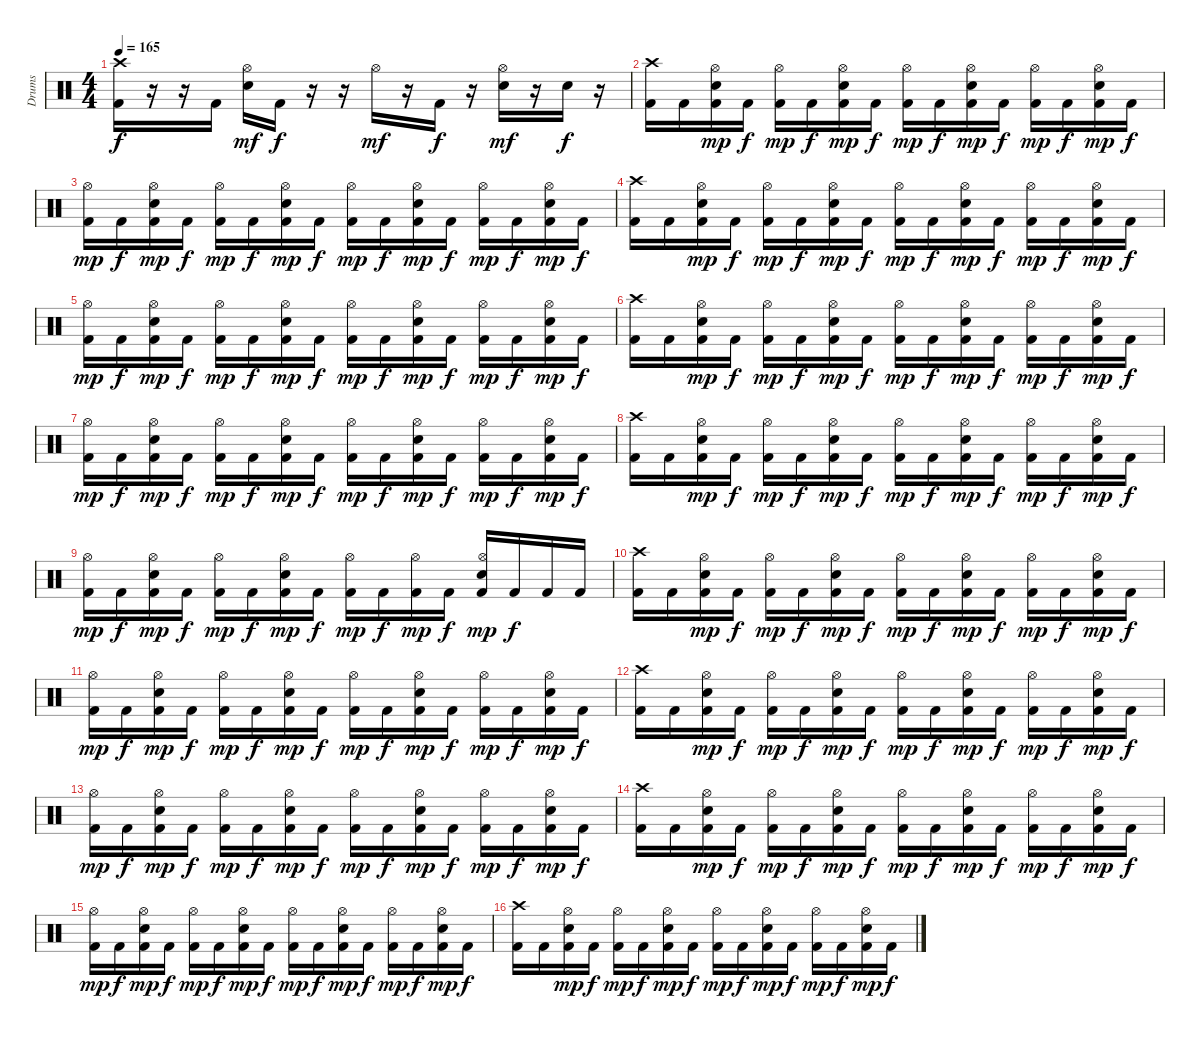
\track ("Drums" "Drums") {instrument percussion}
\staff {score}
\articulation defaults
\ts (4 4)
\tempo 165
\clef neutral
\ks c
("Crash high (hit)" "Kick (hit) 2").16{dy f} r.16 r.16 "Kick (hit) 2".16 ("Hi-Hat (open)" "Snare (hit) 2").16{dy mf} "Kick (hit) 2".16{dy f} r.16 r.16 "Hi-Hat (open)".16{dy mf} r.16 "Kick (hit) 2".16{dy f} r.16 ("Hi-Hat (open)" "Snare (hit) 2").16{dy mf} r.16 "Snare (hit) 2".16{dy f} r.16 |
("Crash high (hit)" "Kick (hit) 2").16 "Kick (hit) 2".16 ("Hi-Hat (open)" "Snare (hit) 2" "Kick (hit) 2").16{dy mp} "Kick (hit) 2".16{dy f} ("Hi-Hat (open)" "Kick (hit) 2").16{dy mp} "Kick (hit) 2".16{dy f} ("Hi-Hat (open)" "Snare (hit) 2" "Kick (hit) 2").16{dy mp} "Kick (hit) 2".16{dy f} ("Hi-Hat (open)" "Kick (hit) 2").16{dy mp} "Kick (hit) 2".16{dy f} ("Hi-Hat (open)" "Snare (hit) 2" "Kick (hit) 2").16{dy mp} "Kick (hit) 2".16{dy f} ("Hi-Hat (open)" "Kick (hit) 2").16{dy mp} "Kick (hit) 2".16{dy f} ("Hi-Hat (open)" "Snare (hit) 2" "Kick (hit) 2").16{dy mp} "Kick (hit) 2".16{dy f} |
("Hi-Hat (open)" "Kick (hit) 2").16{dy mp} "Kick (hit) 2".16{dy f} ("Hi-Hat (open)" "Snare (hit) 2" "Kick (hit) 2").16{dy mp} "Kick (hit) 2".16{dy f} ("Hi-Hat (open)" "Kick (hit) 2").16{dy mp} "Kick (hit) 2".16{dy f} ("Hi-Hat (open)" "Snare (hit) 2" "Kick (hit) 2").16{dy mp} "Kick (hit) 2".16{dy f} ("Hi-Hat (open)" "Kick (hit) 2").16{dy mp} "Kick (hit) 2".16{dy f} ("Hi-Hat (open)" "Snare (hit) 2" "Kick (hit) 2").16{dy mp} "Kick (hit) 2".16{dy f} ("Hi-Hat (open)" "Kick (hit) 2").16{dy mp} "Kick (hit) 2".16{dy f} ("Hi-Hat (open)" "Snare (hit) 2" "Kick (hit) 2").16{dy mp} "Kick (hit) 2".16{dy f} |
("Crash high (hit)" "Kick (hit) 2").16 "Kick (hit) 2".16 ("Hi-Hat (open)" "Snare (hit) 2" "Kick (hit) 2").16{dy mp} "Kick (hit) 2".16{dy f} ("Hi-Hat (open)" "Kick (hit) 2").16{dy mp} "Kick (hit) 2".16{dy f} ("Hi-Hat (open)" "Snare (hit) 2" "Kick (hit) 2").16{dy mp} "Kick (hit) 2".16{dy f} ("Hi-Hat (open)" "Kick (hit) 2").16{dy mp} "Kick (hit) 2".16{dy f} ("Hi-Hat (open)" "Snare (hit) 2" "Kick (hit) 2").16{dy mp} "Kick (hit) 2".16{dy f} ("Hi-Hat (open)" "Kick (hit) 2").16{dy mp} "Kick (hit) 2".16{dy f} ("Hi-Hat (open)" "Snare (hit) 2" "Kick (hit) 2").16{dy mp} "Kick (hit) 2".16{dy f} |
("Hi-Hat (open)" "Kick (hit) 2").16{dy mp} "Kick (hit) 2".16{dy f} ("Hi-Hat (open)" "Snare (hit) 2" "Kick (hit) 2").16{dy mp} "Kick (hit) 2".16{dy f} ("Hi-Hat (open)" "Kick (hit) 2").16{dy mp} "Kick (hit) 2".16{dy f} ("Hi-Hat (open)" "Snare (hit) 2" "Kick (hit) 2").16{dy mp} "Kick (hit) 2".16{dy f} ("Hi-Hat (open)" "Kick (hit) 2").16{dy mp} "Kick (hit) 2".16{dy f} ("Hi-Hat (open)" "Snare (hit) 2" "Kick (hit) 2").16{dy mp} "Kick (hit) 2".16{dy f} ("Hi-Hat (open)" "Kick (hit) 2").16{dy mp} "Kick (hit) 2".16{dy f} ("Hi-Hat (open)" "Snare (hit) 2" "Kick (hit) 2").16{dy mp} "Kick (hit) 2".16{dy f} |
("Crash high (hit)" "Kick (hit) 2").16 "Kick (hit) 2".16 ("Hi-Hat (open)" "Snare (hit) 2" "Kick (hit) 2").16{dy mp} "Kick (hit) 2".16{dy f} ("Hi-Hat (open)" "Kick (hit) 2").16{dy mp} "Kick (hit) 2".16{dy f} ("Hi-Hat (open)" "Snare (hit) 2" "Kick (hit) 2").16{dy mp} "Kick (hit) 2".16{dy f} ("Hi-Hat (open)" "Kick (hit) 2").16{dy mp} "Kick (hit) 2".16{dy f} ("Hi-Hat (open)" "Snare (hit) 2" "Kick (hit) 2").16{dy mp} "Kick (hit) 2".16{dy f} ("Hi-Hat (open)" "Kick (hit) 2").16{dy mp} "Kick (hit) 2".16{dy f} ("Hi-Hat (open)" "Snare (hit) 2" "Kick (hit) 2").16{dy mp} "Kick (hit) 2".16{dy f} |
("Hi-Hat (open)" "Kick (hit) 2").16{dy mp} "Kick (hit) 2".16{dy f} ("Hi-Hat (open)" "Snare (hit) 2" "Kick (hit) 2").16{dy mp} "Kick (hit) 2".16{dy f} ("Hi-Hat (open)" "Kick (hit) 2").16{dy mp} "Kick (hit) 2".16{dy f} ("Hi-Hat (open)" "Snare (hit) 2" "Kick (hit) 2").16{dy mp} "Kick (hit) 2".16{dy f} ("Hi-Hat (open)" "Kick (hit) 2").16{dy mp} "Kick (hit) 2".16{dy f} ("Hi-Hat (open)" "Snare (hit) 2" "Kick (hit) 2").16{dy mp} "Kick (hit) 2".16{dy f} ("Hi-Hat (open)" "Kick (hit) 2").16{dy mp} "Kick (hit) 2".16{dy f} ("Hi-Hat (open)" "Snare (hit) 2" "Kick (hit) 2").16{dy mp} "Kick (hit) 2".16{dy f} |
("Crash high (hit)" "Kick (hit) 2").16 "Kick (hit) 2".16 ("Hi-Hat (open)" "Snare (hit) 2" "Kick (hit) 2").16{dy mp} "Kick (hit) 2".16{dy f} ("Hi-Hat (open)" "Kick (hit) 2").16{dy mp} "Kick (hit) 2".16{dy f} ("Hi-Hat (open)" "Snare (hit) 2" "Kick (hit) 2").16{dy mp} "Kick (hit) 2".16{dy f} ("Hi-Hat (open)" "Kick (hit) 2").16{dy mp} "Kick (hit) 2".16{dy f} ("Hi-Hat (open)" "Snare (hit) 2" "Kick (hit) 2").16{dy mp} "Kick (hit) 2".16{dy f} ("Hi-Hat (open)" "Kick (hit) 2").16{dy mp} "Kick (hit) 2".16{dy f} ("Hi-Hat (open)" "Snare (hit) 2" "Kick (hit) 2").16{dy mp} "Kick (hit) 2".16{dy f} |
("Hi-Hat (open)" "Kick (hit) 2").16{dy mp} "Kick (hit) 2".16{dy f} ("Hi-Hat (open)" "Snare (hit) 2" "Kick (hit) 2").16{dy mp} "Kick (hit) 2".16{dy f} ("Hi-Hat (open)" "Kick (hit) 2").16{dy mp} "Kick (hit) 2".16{dy f} ("Hi-Hat (open)" "Snare (hit) 2" "Kick (hit) 2").16{dy mp} "Kick (hit) 2".16{dy f} ("Hi-Hat (open)" "Kick (hit) 2").16{dy mp} "Kick (hit) 2".16{dy f} ("Hi-Hat (open)" "Kick (hit) 2").16{dy mp} "Kick (hit) 2".16{dy f} ("Hi-Hat (open)" "Snare (hit) 2" "Kick (hit) 2").16{dy mp} "Kick (hit) 2".16{dy f} "Kick (hit) 2".16 "Kick (hit) 2".16 |
("Crash high (hit)" "Kick (hit) 2").16 "Kick (hit) 2".16 ("Hi-Hat (open)" "Snare (hit) 2" "Kick (hit) 2").16{dy mp} "Kick (hit) 2".16{dy f} ("Hi-Hat (open)" "Kick (hit) 2").16{dy mp} "Kick (hit) 2".16{dy f} ("Hi-Hat (open)" "Snare (hit) 2" "Kick (hit) 2").16{dy mp} "Kick (hit) 2".16{dy f} ("Hi-Hat (open)" "Kick (hit) 2").16{dy mp} "Kick (hit) 2".16{dy f} ("Hi-Hat (open)" "Snare (hit) 2" "Kick (hit) 2").16{dy mp} "Kick (hit) 2".16{dy f} ("Hi-Hat (open)" "Kick (hit) 2").16{dy mp} "Kick (hit) 2".16{dy f} ("Hi-Hat (open)" "Snare (hit) 2" "Kick (hit) 2").16{dy mp} "Kick (hit) 2".16{dy f} |
("Hi-Hat (open)" "Kick (hit) 2").16{dy mp} "Kick (hit) 2".16{dy f} ("Hi-Hat (open)" "Snare (hit) 2" "Kick (hit) 2").16{dy mp} "Kick (hit) 2".16{dy f} ("Hi-Hat (open)" "Kick (hit) 2").16{dy mp} "Kick (hit) 2".16{dy f} ("Hi-Hat (open)" "Snare (hit) 2" "Kick (hit) 2").16{dy mp} "Kick (hit) 2".16{dy f} ("Hi-Hat (open)" "Kick (hit) 2").16{dy mp} "Kick (hit) 2".16{dy f} ("Hi-Hat (open)" "Snare (hit) 2" "Kick (hit) 2").16{dy mp} "Kick (hit) 2".16{dy f} ("Hi-Hat (open)" "Kick (hit) 2").16{dy mp} "Kick (hit) 2".16{dy f} ("Hi-Hat (open)" "Snare (hit) 2" "Kick (hit) 2").16{dy mp} "Kick (hit) 2".16{dy f} |
("Crash high (hit)" "Kick (hit) 2").16 "Kick (hit) 2".16 ("Hi-Hat (open)" "Snare (hit) 2" "Kick (hit) 2").16{dy mp} "Kick (hit) 2".16{dy f} ("Hi-Hat (open)" "Kick (hit) 2").16{dy mp} "Kick (hit) 2".16{dy f} ("Hi-Hat (open)" "Snare (hit) 2" "Kick (hit) 2").16{dy mp} "Kick (hit) 2".16{dy f} ("Hi-Hat (open)" "Kick (hit) 2").16{dy mp} "Kick (hit) 2".16{dy f} ("Hi-Hat (open)" "Snare (hit) 2" "Kick (hit) 2").16{dy mp} "Kick (hit) 2".16{dy f} ("Hi-Hat (open)" "Kick (hit) 2").16{dy mp} "Kick (hit) 2".16{dy f} ("Hi-Hat (open)" "Snare (hit) 2" "Kick (hit) 2").16{dy mp} "Kick (hit) 2".16{dy f} |
("Hi-Hat (open)" "Kick (hit) 2").16{dy mp} "Kick (hit) 2".16{dy f} ("Hi-Hat (open)" "Snare (hit) 2" "Kick (hit) 2").16{dy mp} "Kick (hit) 2".16{dy f} ("Hi-Hat (open)" "Kick (hit) 2").16{dy mp} "Kick (hit) 2".16{dy f} ("Hi-Hat (open)" "Snare (hit) 2" "Kick (hit) 2").16{dy mp} "Kick (hit) 2".16{dy f} ("Hi-Hat (open)" "Kick (hit) 2").16{dy mp} "Kick (hit) 2".16{dy f} ("Hi-Hat (open)" "Snare (hit) 2" "Kick (hit) 2").16{dy mp} "Kick (hit) 2".16{dy f} ("Hi-Hat (open)" "Kick (hit) 2").16{dy mp} "Kick (hit) 2".16{dy f} ("Hi-Hat (open)" "Snare (hit) 2" "Kick (hit) 2").16{dy mp} "Kick (hit) 2".16{dy f} |
("Crash high (hit)" "Kick (hit) 2").16 "Kick (hit) 2".16 ("Hi-Hat (open)" "Snare (hit) 2" "Kick (hit) 2").16{dy mp} "Kick (hit) 2".16{dy f} ("Hi-Hat (open)" "Kick (hit) 2").16{dy mp} "Kick (hit) 2".16{dy f} ("Hi-Hat (open)" "Snare (hit) 2" "Kick (hit) 2").16{dy mp} "Kick (hit) 2".16{dy f} ("Hi-Hat (open)" "Kick (hit) 2").16{dy mp} "Kick (hit) 2".16{dy f} ("Hi-Hat (open)" "Snare (hit) 2" "Kick (hit) 2").16{dy mp} "Kick (hit) 2".16{dy f} ("Hi-Hat (open)" "Kick (hit) 2").16{dy mp} "Kick (hit) 2".16{dy f} ("Hi-Hat (open)" "Snare (hit) 2" "Kick (hit) 2").16{dy mp} "Kick (hit) 2".16{dy f} |
("Hi-Hat (open)" "Kick (hit) 2").16{dy mp} "Kick (hit) 2".16{dy f} ("Hi-Hat (open)" "Snare (hit) 2" "Kick (hit) 2").16{dy mp} "Kick (hit) 2".16{dy f} ("Hi-Hat (open)" "Kick (hit) 2").16{dy mp} "Kick (hit) 2".16{dy f} ("Hi-Hat (open)" "Snare (hit) 2" "Kick (hit) 2").16{dy mp} "Kick (hit) 2".16{dy f} ("Hi-Hat (open)" "Kick (hit) 2").16{dy mp} "Kick (hit) 2".16{dy f} ("Hi-Hat (open)" "Snare (hit) 2" "Kick (hit) 2").16{dy mp} "Kick (hit) 2".16{dy f} ("Hi-Hat (open)" "Kick (hit) 2").16{dy mp} "Kick (hit) 2".16{dy f} ("Hi-Hat (open)" "Snare (hit) 2" "Kick (hit) 2").16{dy mp} "Kick (hit) 2".16{dy f} |
("Crash high (hit)" "Kick (hit) 2").16 "Kick (hit) 2".16 ("Hi-Hat (open)" "Snare (hit) 2" "Kick (hit) 2").16{dy mp} "Kick (hit) 2".16{dy f} ("Hi-Hat (open)" "Kick (hit) 2").16{dy mp} "Kick (hit) 2".16{dy f} ("Hi-Hat (open)" "Snare (hit) 2" "Kick (hit) 2").16{dy mp} "Kick (hit) 2".16{dy f} ("Hi-Hat (open)" "Kick (hit) 2").16{dy mp} "Kick (hit) 2".16{dy f} ("Hi-Hat (open)" "Snare (hit) 2" "Kick (hit) 2").16{dy mp} "Kick (hit) 2".16{dy f} ("Hi-Hat (open)" "Kick (hit) 2").16{dy mp} "Kick (hit) 2".16{dy f} ("Hi-Hat (open)" "Snare (hit) 2" "Kick (hit) 2").16{dy mp} "Kick (hit) 2".16{dy f}
